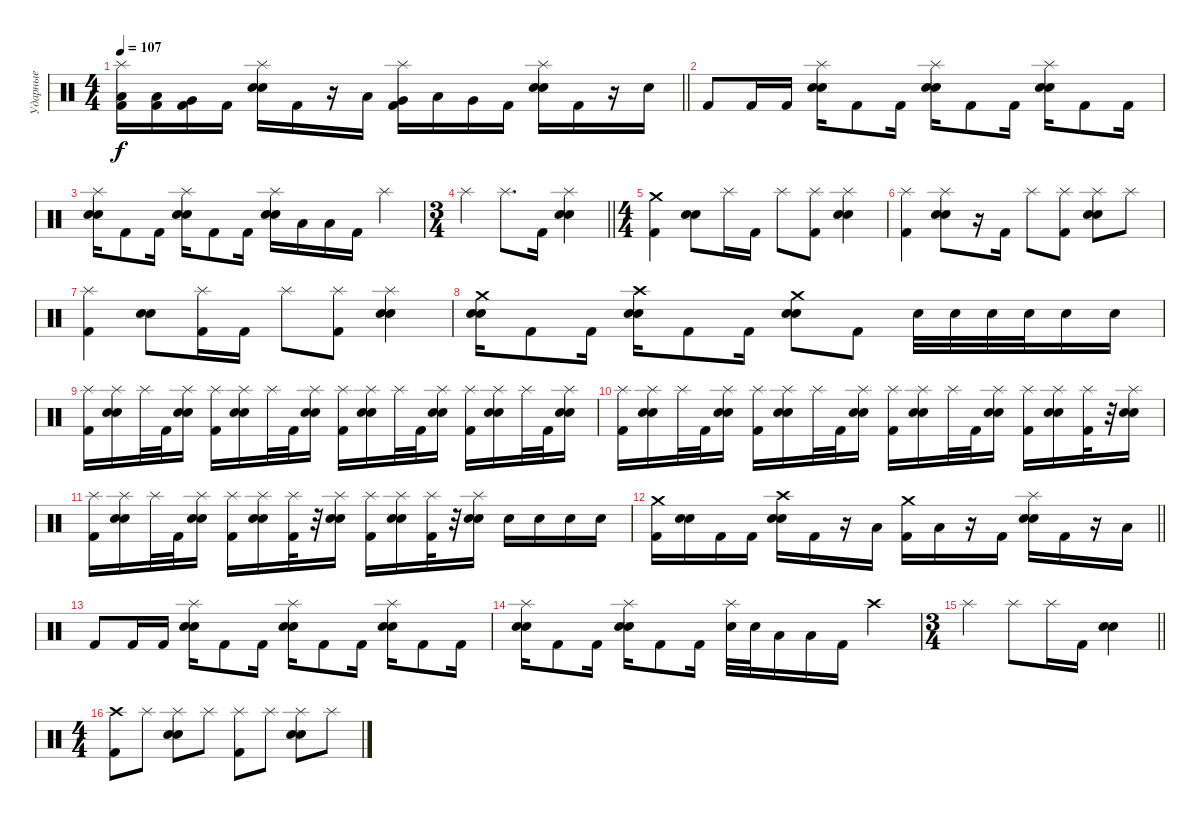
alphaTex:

\track ("Ударные" "Ударные") {instrument percussion}
\staff {score}
\articulation defaults
\ts (4 4)
\tempo 107
\clef neutral
\barLineRight lightlight
\ks c
("Splash (hit)" "Low Tom (hit)" "Kick (hit) 2").16{dy f} ("Low Tom (hit)" "Kick (hit) 2").16 ("Very Low Tom (hit)" "Kick (hit) 2").16 "Kick (hit) 2".16 ("Splash (hit)" "Electric Snare (hit)" "Snare (hit) 2").16 "Kick (hit) 2".16 r.16 "Low Tom (hit)".16 ("Splash (hit)" "Very Low Tom (hit)" "Kick (hit) 2").16 "Low Tom (hit)".16 "Very Low Tom (hit)".16 "Kick (hit) 2".16 ("Splash (hit)" "Electric Snare (hit)" "Snare (hit) 2").16 "Kick (hit) 2".16 r.16 "Electric Snare (hit)".16 |
\section ("" "")
"Kick (hit) 2".8 "Kick (hit) 2".16 "Kick (hit) 2".16 ("Splash (hit)" "Electric Snare (hit)" "Snare (hit) 2").16 "Kick (hit) 2".8 "Kick (hit) 2".16 ("Splash (hit)" "Electric Snare (hit)" "Snare (hit) 2").16 "Kick (hit) 2".8 "Kick (hit) 2".16 ("Splash (hit)" "Electric Snare (hit)" "Snare (hit) 2").16 "Kick (hit) 2".8 "Kick (hit) 2".16 |
("Splash (hit)" "Electric Snare (hit)" "Snare (hit) 2").16 "Kick (hit) 2".8 "Kick (hit) 2".16 ("Splash (hit)" "Electric Snare (hit)" "Snare (hit) 2").16 "Kick (hit) 2".8 "Kick (hit) 2".16 ("Splash (hit)" "Electric Snare (hit)" "Snare (hit) 2").16 "Low Tom (hit)".16 "Low Tom (hit)".16 "Kick (hit) 2".16 "Splash (hit)".4 |
\ts (3 4)
\barLineRight lightlight "Splash (hit)".4 "Splash (hit)".8{d} "Kick (hit) 2".16
("Splash (hit)" "Electric Snare (hit)" "Snare (hit) 2").4 |
\ts (4 4)
\section ("" "")
("Crash medium (hit)" "Kick (hit) 2").4 ("Electric Snare (hit)" "Snare (hit) 2").8 "Splash (hit)".16 "Kick (hit) 2".16 "Splash (hit)".8 ("Splash (hit)" "Kick (hit) 2").8 ("Splash (hit)" "Electric Snare (hit)" "Snare (hit) 2").4 |
("Splash (hit)" "Kick (hit) 2").4 ("Splash (hit)" "Electric Snare (hit)" "Snare (hit) 2").8 r.16 "Kick (hit) 2".16 "Splash (hit)".8 ("Splash (hit)" "Kick (hit) 2").8 ("Splash (hit)" "Electric Snare (hit)" "Snare (hit) 2").8 "Splash (hit)".8 |
("Splash (hit)" "Kick (hit) 2").4 ("Electric Snare (hit)" "Snare (hit) 2").8 ("Splash (hit)" "Kick (hit) 2").16 "Kick (hit) 2".16 "Splash (hit)".8 ("Splash (hit)" "Kick (hit) 2").8 ("Splash (hit)" "Electric Snare (hit)" "Snare (hit) 2").4 |
("Crash medium (hit)" "Electric Snare (hit)" "Snare (hit) 2").16 "Kick (hit) 2".8 "Kick (hit) 2".16 ("Crash high (hit)" "Electric Snare (hit)" "Snare (hit) 2").16 "Kick (hit) 2".8 "Kick (hit) 2".16 ("Crash medium (hit)" "Electric Snare (hit)" "Snare (hit) 2").8 "Kick (hit) 2".8 "Electric Snare (hit)".32 "Electric Snare (hit)".32 "Electric Snare (hit)".32 "Electric Snare (hit)".32 "Electric Snare (hit)".16 "Electric Snare (hit)".16 |
("Splash (hit)" "Kick (hit) 2").16 ("Splash (hit)" "Electric Snare (hit)" "Snare (hit) 2").16 "Splash (hit)".32 "Kick (hit) 2".32 ("Splash (hit)" "Electric Snare (hit)" "Snare (hit) 2").16 ("Splash (hit)" "Kick (hit) 2").16 ("Splash (hit)" "Electric Snare (hit)" "Snare (hit) 2").16 "Splash (hit)".32 "Kick (hit) 2".32 ("Splash (hit)" "Electric Snare (hit)" "Snare (hit) 2").16 ("Splash (hit)" "Kick (hit) 2").16 ("Splash (hit)" "Electric Snare (hit)" "Snare (hit) 2").16 "Splash (hit)".32 "Kick (hit) 2".32 ("Splash (hit)" "Electric Snare (hit)" "Snare (hit) 2").16 ("Splash (hit)" "Kick (hit) 2").16 ("Splash (hit)" "Electric Snare (hit)" "Snare (hit) 2").16 "Splash (hit)".32 "Kick (hit) 2".32 ("Splash (hit)" "Electric Snare (hit)" "Snare (hit) 2").16 |
("Splash (hit)" "Kick (hit) 2").16 ("Splash (hit)" "Electric Snare (hit)" "Snare (hit) 2").16 "Splash (hit)".32 "Kick (hit) 2".32 ("Splash (hit)" "Electric Snare (hit)" "Snare (hit) 2").16 ("Splash (hit)" "Kick (hit) 2").16 ("Splash (hit)" "Electric Snare (hit)" "Snare (hit) 2").16 "Splash (hit)".32 "Kick (hit) 2".32 ("Splash (hit)" "Electric Snare (hit)" "Snare (hit) 2").16 ("Splash (hit)" "Kick (hit) 2").16 ("Splash (hit)" "Electric Snare (hit)" "Snare (hit) 2").16 "Splash (hit)".32 "Kick (hit) 2".32 ("Splash (hit)" "Electric Snare (hit)" "Snare (hit) 2").16 ("Splash (hit)" "Kick (hit) 2").16 ("Splash (hit)" "Electric Snare (hit)" "Snare (hit) 2").16 ("Splash (hit)" "Kick (hit) 2").32 r.32 ("Splash (hit)" "Electric Snare (hit)" "Snare (hit) 2").16 |
("Splash (hit)" "Kick (hit) 2").16 ("Splash (hit)" "Electric Snare (hit)" "Snare (hit) 2").16 "Splash (hit)".32 "Kick (hit) 2".32 ("Splash (hit)" "Electric Snare (hit)" "Snare (hit) 2").16 ("Splash (hit)" "Kick (hit) 2").16 ("Splash (hit)" "Electric Snare (hit)" "Snare (hit) 2").16 ("Splash (hit)" "Kick (hit) 2").32 r.32 ("Splash (hit)" "Electric Snare (hit)" "Snare (hit) 2").16 ("Splash (hit)" "Kick (hit) 2").16 ("Splash (hit)" "Electric Snare (hit)" "Snare (hit) 2").16 ("Splash (hit)" "Kick (hit) 2").32 r.32 ("Splash (hit)" "Electric Snare (hit)" "Snare (hit) 2").16 "Electric Snare (hit)".16 "Electric Snare (hit)".16 "Electric Snare (hit)".16 "Electric Snare (hit)".16 |
\barLineRight lightlight
("Crash medium (hit)" "Kick (hit) 2").16 ("Electric Snare (hit)" "Snare (hit) 2").16 "Kick (hit) 2".16 "Kick (hit) 2".16 ("Crash high (hit)" "Electric Snare (hit)" "Snare (hit) 2").16 "Kick (hit) 2".16 r.16 "Low Tom (hit)".16 ("Crash medium (hit)" "Kick (hit) 2").16 "Low Tom (hit)".16 r.16 "Kick (hit) 2".16 ("Splash (hit)" "Electric Snare (hit)" "Snare (hit) 2").16 "Kick (hit) 2".16 r.16 "Low Tom (hit)".16 |
\section ("" "")
"Kick (hit) 2".8 "Kick (hit) 2".16 "Kick (hit) 2".16 ("Splash (hit)" "Electric Snare (hit)" "Snare (hit) 2").16 "Kick (hit) 2".8 "Kick (hit) 2".16 ("Splash (hit)" "Electric Snare (hit)" "Snare (hit) 2").16 "Kick (hit) 2".8 "Kick (hit) 2".16 ("Splash (hit)" "Electric Snare (hit)" "Snare (hit) 2").16 "Kick (hit) 2".8 "Kick (hit) 2".16 |
("Splash (hit)" "Electric Snare (hit)" "Snare (hit) 2").16 "Kick (hit) 2".8 "Kick (hit) 2".16 ("Splash (hit)" "Electric Snare (hit)" "Snare (hit) 2").16 "Kick (hit) 2".8 "Kick (hit) 2".16 ("Splash (hit)" "Electric Snare (hit)").32 "Electric Snare (hit)".32 "Low Tom (hit)".16 "Low Tom (hit)".16 "Kick (hit) 2".16 "Crash high (hit)".4 |
\ts (3 4)
\barLineRight lightlight "Splash (hit)".4 "Splash (hit)".8 "Splash (hit)".16 "Kick (hit) 2".16
("Electric Snare (hit)" "Snare (hit) 2").4 |
\ts (4 4)
\section ("" "")
("Crash high (hit)" "Kick (hit) 2").8 "Splash (hit)".8 ("Splash (hit)" "Electric Snare (hit)" "Snare (hit) 2").8 "Splash (hit)".8 ("Splash (hit)" "Kick (hit) 2").8 "Splash (hit)".8 ("Splash (hit)" "Electric Snare (hit)" "Snare (hit) 2").8 "Splash (hit)".8
